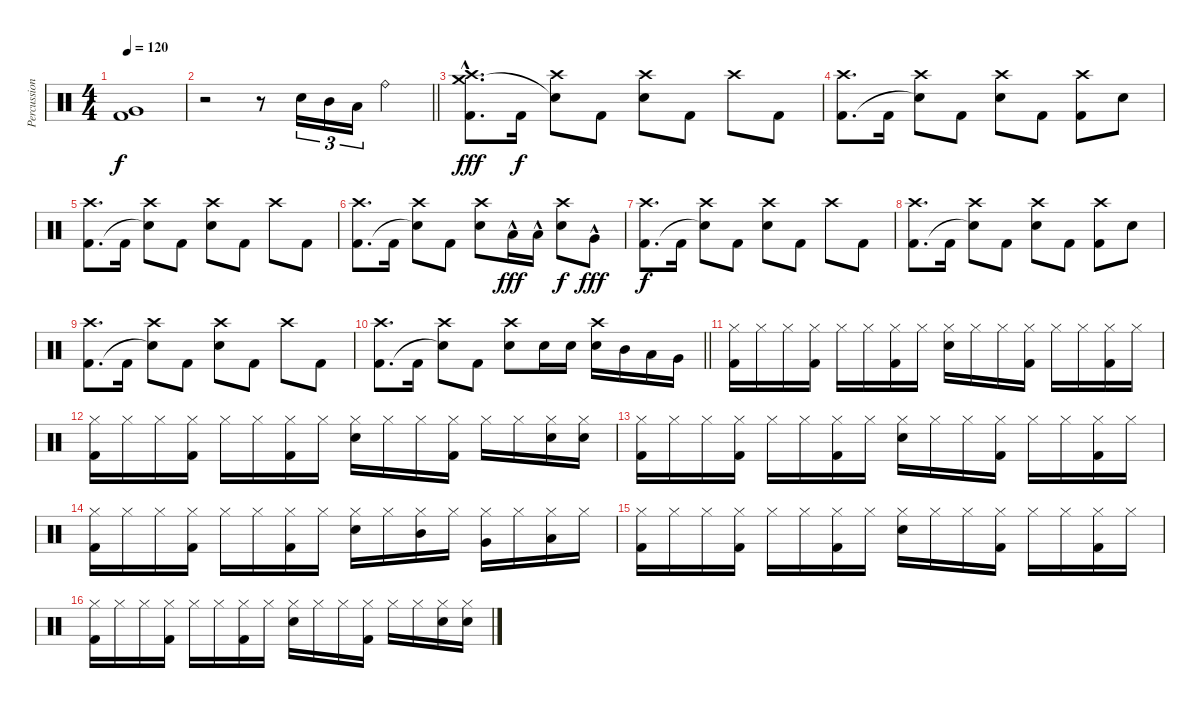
\track ("Percussion" "Percussion") {instrument percussion}
\staff {score}
\articulation defaults
\ts (4 4)
\tempo 120
\clef neutral
\ks c
("Very Low Tom (hit)" "Kick (hit) 2").1{dy f} |
\barLineRight lightlight
r.2 r.8 "Snare (hit) 2".16{tu (3 2)} "Mid Tom (hit)".16{tu (3 2)} "Low Tom (hit)".16{tu (3 2)} "Ride (bell)".4 |
\section ("" "")
("Crash high (hit)"{hac} "Crash medium (hit)"{hac} "Kick (hit) 2").8{d dy fff} "Kick (hit) 2".16{dy f} ("Crash high (hit)" "Snare (hit)"{t}).8 "Kick (hit) 2".8 ("Crash high (hit)" "Snare (hit) 2").8 "Kick (hit) 2".8 "Crash high (hit)".8 "Kick (hit) 2".8 |
("Crash high (hit)" "Kick (hit) 2").8{d} "Kick (hit) 2".16 ("Crash high (hit)" "Snare (hit)"{t}).8 "Kick (hit) 2".8 ("Crash high (hit)" "Snare (hit) 2").8 "Kick (hit) 2".8 ("Crash high (hit)" "Kick (hit) 2").8 "Snare (hit) 2".8 |
("Crash high (hit)" "Kick (hit) 2").8{d} "Kick (hit) 2".16 ("Crash high (hit)" "Snare (hit)"{t}).8 "Kick (hit) 2".8 ("Crash high (hit)" "Snare (hit) 2").8 "Kick (hit) 2".8 "Crash high (hit)".8 "Kick (hit) 2".8 |
("Crash high (hit)" "Kick (hit) 2").8{d} "Kick (hit) 2".16 ("Crash high (hit)" "Snare (hit)"{t}).8 "Kick (hit) 2".8 ("Crash high (hit)" "Snare (hit) 2").8 "Low Tom (hit)"{hac}.16{dy fff} "Low Tom (hit)"{hac}.16 ("Crash high (hit)" "Snare (hit) 2").8{dy f} "Very Low Tom (hit)"{hac}.8{dy fff} |
("Crash high (hit)" "Kick (hit) 2").8{d dy f} "Kick (hit) 2".16 ("Crash high (hit)" "Snare (hit)"{t}).8 "Kick (hit) 2".8 ("Crash high (hit)" "Snare (hit) 2").8 "Kick (hit) 2".8 "Crash high (hit)".8 "Kick (hit) 2".8 |
("Crash high (hit)" "Kick (hit) 2").8{d} "Kick (hit) 2".16 ("Crash high (hit)" "Snare (hit)"{t}).8 "Kick (hit) 2".8 ("Crash high (hit)" "Snare (hit) 2").8 "Kick (hit) 2".8 ("Crash high (hit)" "Kick (hit) 2").8 "Snare (hit) 2".8 |
("Crash high (hit)" "Kick (hit) 2").8{d} "Kick (hit) 2".16 ("Crash high (hit)" "Snare (hit)"{t}).8 "Kick (hit) 2".8 ("Crash high (hit)" "Snare (hit) 2").8 "Kick (hit) 2".8 "Crash high (hit)".8 "Kick (hit) 2".8 |
\barLineRight lightlight
("Crash high (hit)" "Kick (hit) 2").8{d} "Kick (hit) 2".16 ("Crash high (hit)" "Snare (hit)"{t}).8 "Kick (hit) 2".8 ("Crash high (hit)" "Snare (hit) 2").8 "Snare (hit) 2".16 "Snare (hit) 2".16 ("Crash high (hit)" "Snare (hit) 2").16 "Mid Tom (hit)".16 "Low Tom (hit)".16 "Very Low Tom (hit)".16 |
\section ("" "")
("Hi-Hat (closed)" "Kick (hit) 2").16 "Hi-Hat (closed)".16 "Hi-Hat (closed)".16 ("Hi-Hat (closed)" "Kick (hit) 2").16 "Hi-Hat (closed)".16 "Hi-Hat (closed)".16 ("Hi-Hat (closed)" "Kick (hit) 2").16 "Hi-Hat (closed)".16 ("Hi-Hat (closed)" "Snare (hit) 2").16 "Hi-Hat (closed)".16 "Hi-Hat (closed)".16 ("Hi-Hat (closed)" "Kick (hit) 2").16 "Hi-Hat (closed)".16 "Hi-Hat (closed)".16 ("Hi-Hat (closed)" "Kick (hit) 2").16 "Hi-Hat (closed)".16 |
("Hi-Hat (closed)" "Kick (hit) 2").16 "Hi-Hat (closed)".16 "Hi-Hat (closed)".16 ("Hi-Hat (closed)" "Kick (hit) 2").16 "Hi-Hat (closed)".16 "Hi-Hat (closed)".16 ("Hi-Hat (closed)" "Kick (hit) 2").16 "Hi-Hat (closed)".16 ("Hi-Hat (closed)" "Snare (hit) 2").16 "Hi-Hat (closed)".16 "Hi-Hat (closed)".16 ("Hi-Hat (closed)" "Kick (hit) 2").16 "Hi-Hat (closed)".16 "Hi-Hat (closed)".16 ("Hi-Hat (closed)" "Snare (hit) 2").16 ("Hi-Hat (closed)" "Snare (hit) 2").16 |
("Hi-Hat (closed)" "Kick (hit) 2").16 "Hi-Hat (closed)".16 "Hi-Hat (closed)".16 ("Hi-Hat (closed)" "Kick (hit) 2").16 "Hi-Hat (closed)".16 "Hi-Hat (closed)".16 ("Hi-Hat (closed)" "Kick (hit) 2").16 "Hi-Hat (closed)".16 ("Hi-Hat (closed)" "Snare (hit) 2").16 "Hi-Hat (closed)".16 "Hi-Hat (closed)".16 ("Hi-Hat (closed)" "Kick (hit) 2").16 "Hi-Hat (closed)".16 "Hi-Hat (closed)".16 ("Hi-Hat (closed)" "Kick (hit) 2").16 "Hi-Hat (closed)".16 |
("Hi-Hat (closed)" "Kick (hit) 2").16 "Hi-Hat (closed)".16 "Hi-Hat (closed)".16 ("Hi-Hat (closed)" "Kick (hit) 2").16 "Hi-Hat (closed)".16 "Hi-Hat (closed)".16 ("Hi-Hat (closed)" "Kick (hit) 2").16 "Hi-Hat (closed)".16 ("Hi-Hat (closed)" "Snare (hit) 2").16 "Hi-Hat (closed)".16 ("Hi-Hat (closed)" "Mid Tom (hit)").16 "Hi-Hat (closed)".16 ("Hi-Hat (closed)" "Very Low Tom (hit)").16 "Hi-Hat (closed)".16 ("Hi-Hat (closed)" "Low Tom (hit)").16 "Hi-Hat (closed)".16 |
("Hi-Hat (closed)" "Kick (hit) 2").16 "Hi-Hat (closed)".16 "Hi-Hat (closed)".16 ("Hi-Hat (closed)" "Kick (hit) 2").16 "Hi-Hat (closed)".16 "Hi-Hat (closed)".16 ("Hi-Hat (closed)" "Kick (hit) 2").16 "Hi-Hat (closed)".16 ("Hi-Hat (closed)" "Snare (hit) 2").16 "Hi-Hat (closed)".16 "Hi-Hat (closed)".16 ("Hi-Hat (closed)" "Kick (hit) 2").16 "Hi-Hat (closed)".16 "Hi-Hat (closed)".16 ("Hi-Hat (closed)" "Kick (hit) 2").16 "Hi-Hat (closed)".16 |
("Hi-Hat (closed)" "Kick (hit) 2").16 "Hi-Hat (closed)".16 "Hi-Hat (closed)".16 ("Hi-Hat (closed)" "Kick (hit) 2").16 "Hi-Hat (closed)".16 "Hi-Hat (closed)".16 ("Hi-Hat (closed)" "Kick (hit) 2").16 "Hi-Hat (closed)".16 ("Hi-Hat (closed)" "Snare (hit) 2").16 "Hi-Hat (closed)".16 "Hi-Hat (closed)".16 ("Hi-Hat (closed)" "Kick (hit) 2").16 "Hi-Hat (closed)".16 "Hi-Hat (closed)".16 ("Hi-Hat (closed)" "Snare (hit) 2").16 ("Hi-Hat (closed)" "Snare (hit) 2").16
